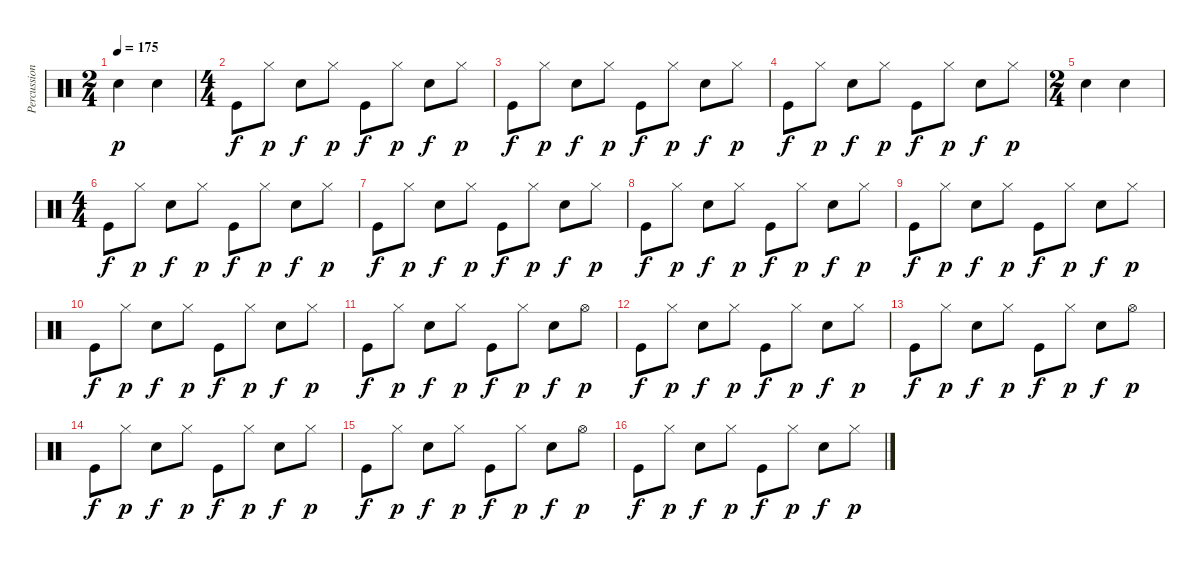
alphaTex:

\track ("Percussion" "Percussion") {instrument percussion}
\staff {score}
\articulation defaults
\ts (2 4)
\tempo 175
\clef neutral
\ks c "Snare (hit) 2".4{dy p} "Snare (hit) 2".4
|
\ts (4 4)
"Kick (hit)".8{dy f} "Hi-Hat (closed)".8{dy p} "Snare (hit) 2".8{dy f} "Hi-Hat (closed)".8{dy p} "Kick (hit)".8{dy f} "Hi-Hat (closed)".8{dy p} "Snare (hit) 2".8{dy f} "Hi-Hat (closed)".8{dy p} |
"Kick (hit)".8{dy f} "Hi-Hat (closed)".8{dy p} "Snare (hit) 2".8{dy f} "Hi-Hat (closed)".8{dy p} "Kick (hit)".8{dy f} "Hi-Hat (closed)".8{dy p} "Snare (hit) 2".8{dy f} "Hi-Hat (closed)".8{dy p} |
"Kick (hit)".8{dy f} "Hi-Hat (closed)".8{dy p} "Snare (hit) 2".8{dy f} "Hi-Hat (closed)".8{dy p} "Kick (hit)".8{dy f} "Hi-Hat (closed)".8{dy p} "Snare (hit) 2".8{dy f} "Hi-Hat (closed)".8{dy p} |
\ts (2 4)
"Snare (hit) 2".4 "Snare (hit) 2".4 |
\ts (4 4)
"Kick (hit)".8{dy f} "Hi-Hat (closed)".8{dy p} "Snare (hit) 2".8{dy f} "Hi-Hat (closed)".8{dy p} "Kick (hit)".8{dy f} "Hi-Hat (closed)".8{dy p} "Snare (hit) 2".8{dy f} "Hi-Hat (closed)".8{dy p} |
"Kick (hit)".8{dy f} "Hi-Hat (closed)".8{dy p} "Snare (hit) 2".8{dy f} "Hi-Hat (closed)".8{dy p} "Kick (hit)".8{dy f} "Hi-Hat (closed)".8{dy p} "Snare (hit) 2".8{dy f} "Hi-Hat (closed)".8{dy p} |
"Kick (hit)".8{dy f} "Hi-Hat (closed)".8{dy p} "Snare (hit) 2".8{dy f} "Hi-Hat (closed)".8{dy p} "Kick (hit)".8{dy f} "Hi-Hat (closed)".8{dy p} "Snare (hit) 2".8{dy f} "Hi-Hat (closed)".8{dy p} |
"Kick (hit)".8{dy f} "Hi-Hat (closed)".8{dy p} "Snare (hit) 2".8{dy f} "Hi-Hat (closed)".8{dy p} "Kick (hit)".8{dy f} "Hi-Hat (closed)".8{dy p} "Snare (hit) 2".8{dy f} "Hi-Hat (closed)".8{dy p} |
"Kick (hit)".8{dy f} "Hi-Hat (closed)".8{dy p} "Snare (hit) 2".8{dy f} "Hi-Hat (closed)".8{dy p} "Kick (hit)".8{dy f} "Hi-Hat (closed)".8{dy p} "Snare (hit) 2".8{dy f} "Hi-Hat (closed)".8{dy p} |
"Kick (hit)".8{dy f} "Hi-Hat (closed)".8{dy p} "Snare (hit) 2".8{dy f} "Hi-Hat (closed)".8{dy p} "Kick (hit)".8{dy f} "Hi-Hat (closed)".8{dy p} "Snare (hit) 2".8{dy f} "Hi-Hat (open)".8{dy p} |
"Kick (hit)".8{dy f} "Hi-Hat (closed)".8{dy p} "Snare (hit) 2".8{dy f} "Hi-Hat (closed)".8{dy p} "Kick (hit)".8{dy f} "Hi-Hat (closed)".8{dy p} "Snare (hit) 2".8{dy f} "Hi-Hat (closed)".8{dy p} |
"Kick (hit)".8{dy f} "Hi-Hat (closed)".8{dy p} "Snare (hit) 2".8{dy f} "Hi-Hat (closed)".8{dy p} "Kick (hit)".8{dy f} "Hi-Hat (closed)".8{dy p} "Snare (hit) 2".8{dy f} "Hi-Hat (open)".8{dy p} |
"Kick (hit)".8{dy f} "Hi-Hat (closed)".8{dy p} "Snare (hit) 2".8{dy f} "Hi-Hat (closed)".8{dy p} "Kick (hit)".8{dy f} "Hi-Hat (closed)".8{dy p} "Snare (hit) 2".8{dy f} "Hi-Hat (closed)".8{dy p} |
"Kick (hit)".8{dy f} "Hi-Hat (closed)".8{dy p} "Snare (hit) 2".8{dy f} "Hi-Hat (closed)".8{dy p} "Kick (hit)".8{dy f} "Hi-Hat (closed)".8{dy p} "Snare (hit) 2".8{dy f} "Hi-Hat (open)".8{dy p} |
"Kick (hit)".8{dy f} "Hi-Hat (closed)".8{dy p} "Snare (hit) 2".8{dy f} "Hi-Hat (closed)".8{dy p} "Kick (hit)".8{dy f} "Hi-Hat (closed)".8{dy p} "Snare (hit) 2".8{dy f} "Hi-Hat (closed)".8{dy p}
